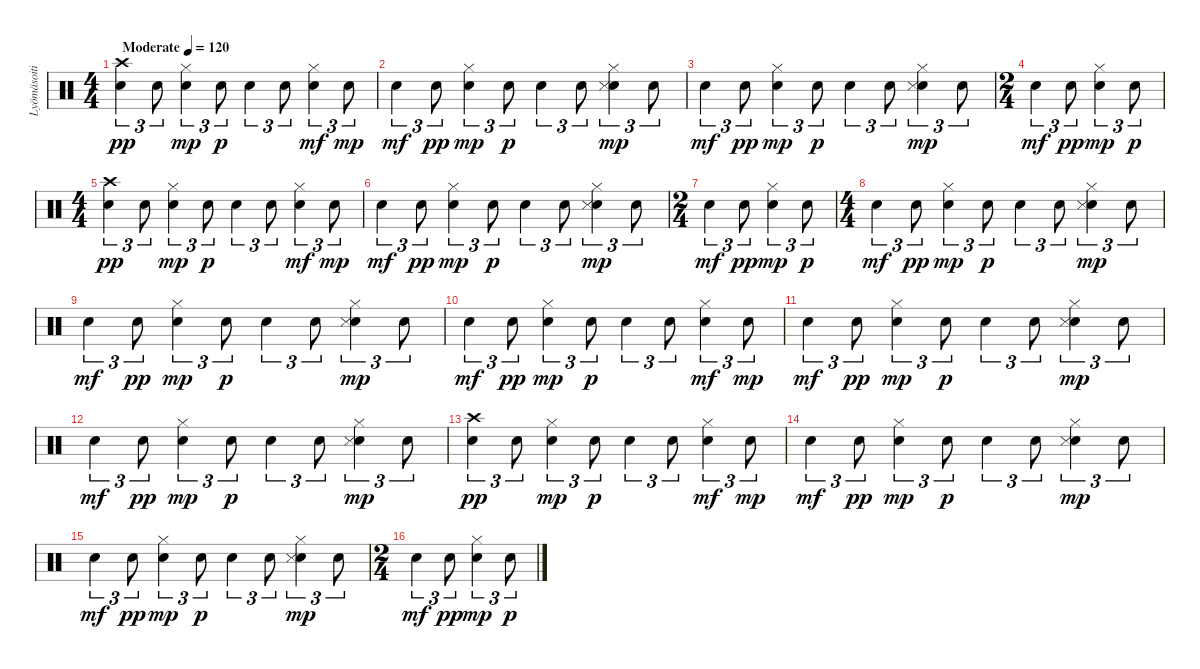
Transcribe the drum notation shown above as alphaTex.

\track ("Lyömäsoitin" "Lyömäsoiti") {instrument percussion}
\staff {score}
\articulation defaults
\ts (4 4)
\tempo (120 "Moderate")
\clef neutral
\ks c
("Snare (hit) 2" "Crash high (hit)").4{tu (3 2) dy pp} "Snare (hit) 2".8{tu (3 2)} ("Snare (hit) 2" "Hi-Hat (closed)").4{tu (3 2) dy mp} "Snare (hit) 2".8{tu (3 2) dy p} "Snare (hit) 2".4{tu (3 2)} "Snare (hit) 2".8{tu (3 2)} ("Snare (hit) 2" "Hi-Hat (closed)").4{tu (3 2) dy mf} "Snare (hit) 2".8{tu (3 2) dy mp} |
"Snare (hit) 2".4{tu (3 2) dy mf} "Snare (hit) 2".8{tu (3 2) dy pp} ("Snare (hit) 2" "Hi-Hat (closed)").4{tu (3 2) dy mp} "Snare (hit) 2".8{tu (3 2) dy p} "Snare (hit) 2".4{tu (3 2)} "Snare (hit) 2".8{tu (3 2)} ("Snare (hit) 2" "Hi-Hat (closed)" "Snare (side stick) 3").4{tu (3 2) dy mp} "Snare (hit) 2".8{tu (3 2)} |
"Snare (hit) 2".4{tu (3 2) dy mf} "Snare (hit) 2".8{tu (3 2) dy pp} ("Snare (hit) 2" "Hi-Hat (closed)").4{tu (3 2) dy mp} "Snare (hit) 2".8{tu (3 2) dy p} "Snare (hit) 2".4{tu (3 2)} "Snare (hit) 2".8{tu (3 2)} ("Snare (hit) 2" "Hi-Hat (closed)" "Snare (side stick) 3").4{tu (3 2) dy mp} "Snare (hit) 2".8{tu (3 2)} |
\ts (2 4)
"Snare (hit) 2".4{tu (3 2) dy mf} "Snare (hit) 2".8{tu (3 2) dy pp} ("Snare (hit) 2" "Hi-Hat (closed)").4{tu (3 2) dy mp} "Snare (hit) 2".8{tu (3 2) dy p} |
\ts (4 4)
("Snare (hit) 2" "Crash high (hit)").4{tu (3 2) dy pp} "Snare (hit) 2".8{tu (3 2)} ("Snare (hit) 2" "Hi-Hat (closed)").4{tu (3 2) dy mp} "Snare (hit) 2".8{tu (3 2) dy p} "Snare (hit) 2".4{tu (3 2)} "Snare (hit) 2".8{tu (3 2)} ("Snare (hit) 2" "Hi-Hat (closed)").4{tu (3 2) dy mf} "Snare (hit) 2".8{tu (3 2) dy mp} |
"Snare (hit) 2".4{tu (3 2) dy mf} "Snare (hit) 2".8{tu (3 2) dy pp} ("Snare (hit) 2" "Hi-Hat (closed)").4{tu (3 2) dy mp} "Snare (hit) 2".8{tu (3 2) dy p} "Snare (hit) 2".4{tu (3 2)} "Snare (hit) 2".8{tu (3 2)} ("Snare (hit) 2" "Hi-Hat (closed)" "Snare (side stick) 3").4{tu (3 2) dy mp} "Snare (hit) 2".8{tu (3 2)} |
\ts (2 4)
"Snare (hit) 2".4{tu (3 2) dy mf} "Snare (hit) 2".8{tu (3 2) dy pp} ("Snare (hit) 2" "Hi-Hat (closed)").4{tu (3 2) dy mp} "Snare (hit) 2".8{tu (3 2) dy p} |
\ts (4 4)
"Snare (hit) 2".4{tu (3 2) dy mf} "Snare (hit) 2".8{tu (3 2) dy pp} ("Snare (hit) 2" "Hi-Hat (closed)").4{tu (3 2) dy mp} "Snare (hit) 2".8{tu (3 2) dy p} "Snare (hit) 2".4{tu (3 2)} "Snare (hit) 2".8{tu (3 2)} ("Snare (hit) 2" "Hi-Hat (closed)" "Snare (side stick) 3").4{tu (3 2) dy mp} "Snare (hit) 2".8{tu (3 2)} |
"Snare (hit) 2".4{tu (3 2) dy mf} "Snare (hit) 2".8{tu (3 2) dy pp} ("Snare (hit) 2" "Hi-Hat (closed)").4{tu (3 2) dy mp} "Snare (hit) 2".8{tu (3 2) dy p} "Snare (hit) 2".4{tu (3 2)} "Snare (hit) 2".8{tu (3 2)} ("Snare (hit) 2" "Hi-Hat (closed)" "Snare (side stick) 3").4{tu (3 2) dy mp} "Snare (hit) 2".8{tu (3 2)} |
"Snare (hit) 2".4{tu (3 2) dy mf} "Snare (hit) 2".8{tu (3 2) dy pp} ("Snare (hit) 2" "Hi-Hat (closed)").4{tu (3 2) dy mp} "Snare (hit) 2".8{tu (3 2) dy p} "Snare (hit) 2".4{tu (3 2)} "Snare (hit) 2".8{tu (3 2)} ("Snare (hit) 2" "Hi-Hat (closed)").4{tu (3 2) dy mf} "Snare (hit) 2".8{tu (3 2) dy mp} |
"Snare (hit) 2".4{tu (3 2) dy mf} "Snare (hit) 2".8{tu (3 2) dy pp} ("Snare (hit) 2" "Hi-Hat (closed)").4{tu (3 2) dy mp} "Snare (hit) 2".8{tu (3 2) dy p} "Snare (hit) 2".4{tu (3 2)} "Snare (hit) 2".8{tu (3 2)} ("Snare (hit) 2" "Hi-Hat (closed)" "Snare (side stick) 3").4{tu (3 2) dy mp} "Snare (hit) 2".8{tu (3 2)} |
"Snare (hit) 2".4{tu (3 2) dy mf} "Snare (hit) 2".8{tu (3 2) dy pp} ("Snare (hit) 2" "Hi-Hat (closed)").4{tu (3 2) dy mp} "Snare (hit) 2".8{tu (3 2) dy p} "Snare (hit) 2".4{tu (3 2)} "Snare (hit) 2".8{tu (3 2)} ("Snare (hit) 2" "Hi-Hat (closed)" "Snare (side stick) 3").4{tu (3 2) dy mp} "Snare (hit) 2".8{tu (3 2)} |
("Snare (hit) 2" "Crash high (hit)").4{tu (3 2) dy pp} "Snare (hit) 2".8{tu (3 2)} ("Snare (hit) 2" "Hi-Hat (closed)").4{tu (3 2) dy mp} "Snare (hit) 2".8{tu (3 2) dy p} "Snare (hit) 2".4{tu (3 2)} "Snare (hit) 2".8{tu (3 2)} ("Snare (hit) 2" "Hi-Hat (closed)").4{tu (3 2) dy mf} "Snare (hit) 2".8{tu (3 2) dy mp} |
"Snare (hit) 2".4{tu (3 2) dy mf} "Snare (hit) 2".8{tu (3 2) dy pp} ("Snare (hit) 2" "Hi-Hat (closed)").4{tu (3 2) dy mp} "Snare (hit) 2".8{tu (3 2) dy p} "Snare (hit) 2".4{tu (3 2)} "Snare (hit) 2".8{tu (3 2)} ("Snare (hit) 2" "Hi-Hat (closed)" "Snare (side stick) 3").4{tu (3 2) dy mp} "Snare (hit) 2".8{tu (3 2)} |
"Snare (hit) 2".4{tu (3 2) dy mf} "Snare (hit) 2".8{tu (3 2) dy pp} ("Snare (hit) 2" "Hi-Hat (closed)").4{tu (3 2) dy mp} "Snare (hit) 2".8{tu (3 2) dy p} "Snare (hit) 2".4{tu (3 2)} "Snare (hit) 2".8{tu (3 2)} ("Snare (hit) 2" "Hi-Hat (closed)" "Snare (side stick) 3").4{tu (3 2) dy mp} "Snare (hit) 2".8{tu (3 2)} |
\ts (2 4)
"Snare (hit) 2".4{tu (3 2) dy mf} "Snare (hit) 2".8{tu (3 2) dy pp} ("Snare (hit) 2" "Hi-Hat (closed)").4{tu (3 2) dy mp} "Snare (hit) 2".8{tu (3 2) dy p}
